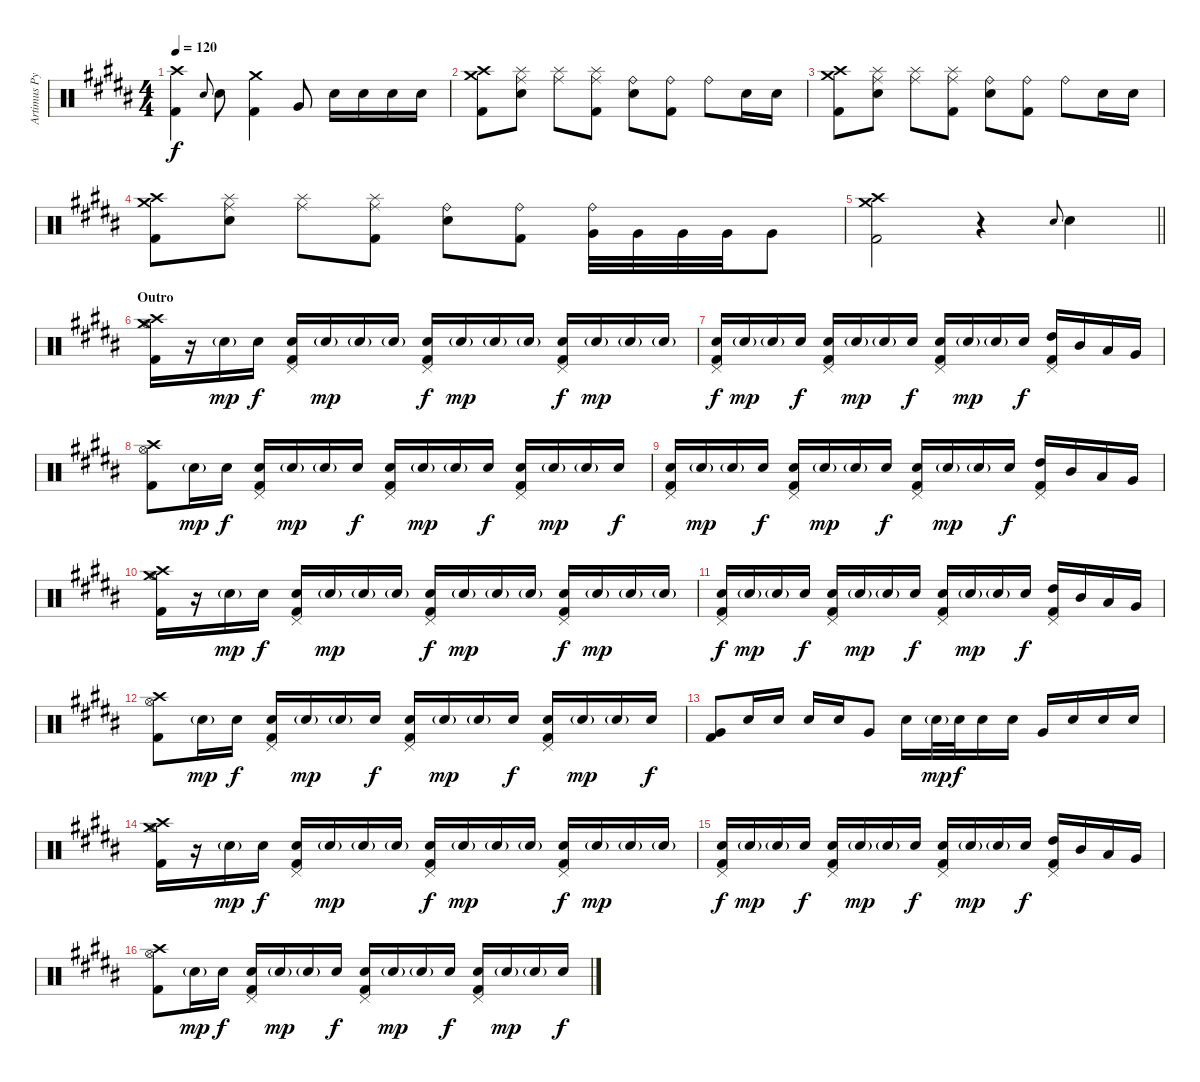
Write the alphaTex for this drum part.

\track ("Artimus Pyle - Drums" "Artimus Py") {instrument percussion}
\staff {score}
\articulation defaults
\ts (4 4)
\tempo 120
\clef neutral
\ks b
("Crash high (hit)" "Kick (hit) 2").4{dy f} "Snare (hit) 2".8{gr onbeat} "Snare (hit) 2".8 ("Crash medium (hit)" "Kick (hit) 2").4 "Very Low Tom (hit)".8 "Snare (hit) 2".16 "Snare (hit) 2".16 "Snare (hit) 2".16 "Snare (hit) 2".16 |
("Crash high (hit)" "Crash medium (hit)" "Kick (hit) 2").8 ("Ride (middle)" "Splash (hit)" "Snare (hit) 2").8 ("Ride (middle)" "Splash (hit)").8 ("Ride (middle)" "Splash (hit)" "Kick (hit) 2").8 ("Ride (bell)" "Snare (hit) 2").8 ("Ride (bell)" "Kick (hit) 2").8 "Ride (bell)".8 "Snare (hit) 2".16 "Snare (hit) 2".16 |
("Crash high (hit)" "Crash medium (hit)" "Kick (hit) 2").8 ("Ride (middle)" "Splash (hit)" "Snare (hit) 2").8 ("Ride (middle)" "Splash (hit)").8 ("Ride (middle)" "Splash (hit)" "Kick (hit) 2").8 ("Ride (bell)" "Snare (hit) 2").8 ("Ride (bell)" "Kick (hit) 2").8 "Ride (bell)".8 "Snare (hit) 2".16 "Snare (hit) 2".16 |
("Crash high (hit)" "Crash medium (hit)" "Kick (hit) 2").8 ("Ride (middle)" "Splash (hit)" "Snare (hit) 2").8 ("Ride (middle)" "Splash (hit)").8 ("Ride (middle)" "Splash (hit)" "Kick (hit) 2").8 ("Ride (bell)" "Snare (hit) 2").8 ("Ride (bell)" "Kick (hit) 2").8 ("Ride (bell)" "Very Low Tom (hit)").32 "Very Low Tom (hit)".32 "Very Low Tom (hit)".32 "Very Low Tom (hit)".32 "Very Low Tom (hit)".8 |
\barLineRight lightlight
("Crash high (hit)" "Crash medium (hit)" "Kick (hit) 2").2 r.4 "Snare (hit) 2".8{gr onbeat} "Snare (hit) 2".4 |
\section ("" "Outro")
("Crash high (hit)" "Crash medium (hit)" "Hi-Hat (open)" "Kick (hit) 2").16 r.16 "Snare (hit) 2"{g}.16{dy mp} "Snare (hit) 2".16{dy f} ("Snare (hit) 2" "Pedal Hi-Hat (hit)" "Kick (hit) 2").16 "Snare (hit) 2"{g}.16{dy mp} "Snare (hit) 2"{g}.16 "Snare (hit) 2"{g}.16 ("Snare (hit) 2" "Pedal Hi-Hat (hit)" "Kick (hit) 2").16{dy f} "Snare (hit) 2"{g}.16{dy mp} "Snare (hit) 2"{g}.16 "Snare (hit) 2"{g}.16 ("Snare (hit) 2" "Pedal Hi-Hat (hit)" "Kick (hit) 2").16{dy f} "Snare (hit) 2"{g}.16{dy mp} "Snare (hit) 2"{g}.16 "Snare (hit) 2"{g}.16 |
("Snare (hit) 2" "Pedal Hi-Hat (hit)" "Kick (hit) 2").16{dy f} "Snare (hit) 2"{g}.16{dy mp} "Snare (hit) 2"{g}.16 "Snare (hit) 2".16{dy f} ("Snare (hit) 2" "Pedal Hi-Hat (hit)" "Kick (hit) 2").16 "Snare (hit) 2"{g}.16{dy mp} "Snare (hit) 2"{g}.16 "Snare (hit) 2".16{dy f} ("Snare (hit) 2" "Pedal Hi-Hat (hit)" "Kick (hit) 2").16 "Snare (hit) 2"{g}.16{dy mp} "Snare (hit) 2"{g}.16 "Snare (hit) 2".16{dy f} ("High Tom (hit)" "Pedal Hi-Hat (hit)" "Kick (hit) 2").16 "Mid Tom (hit)".16 "Low Tom (hit)".16 "Very Low Tom (hit)".16 |
("Crash high (hit)" "Hi-Hat (open)" "Kick (hit) 2").8 "Snare (hit) 2"{g}.16{dy mp} "Snare (hit) 2".16{dy f} ("Snare (hit) 2" "Pedal Hi-Hat (hit)" "Kick (hit) 2").16 "Snare (hit) 2"{g}.16{dy mp} "Snare (hit) 2"{g}.16 "Snare (hit) 2".16{dy f} ("Snare (hit) 2" "Pedal Hi-Hat (hit)" "Kick (hit) 2").16 "Snare (hit) 2"{g}.16{dy mp} "Snare (hit) 2"{g}.16 "Snare (hit) 2".16{dy f} ("Snare (hit) 2" "Pedal Hi-Hat (hit)" "Kick (hit) 2").16 "Snare (hit) 2"{g}.16{dy mp} "Snare (hit) 2"{g}.16 "Snare (hit) 2".16{dy f} |
("Snare (hit) 2" "Pedal Hi-Hat (hit)" "Kick (hit) 2").16 "Snare (hit) 2"{g}.16{dy mp} "Snare (hit) 2"{g}.16 "Snare (hit) 2".16{dy f} ("Snare (hit) 2" "Pedal Hi-Hat (hit)" "Kick (hit) 2").16 "Snare (hit) 2"{g}.16{dy mp} "Snare (hit) 2"{g}.16 "Snare (hit) 2".16{dy f} ("Snare (hit) 2" "Pedal Hi-Hat (hit)" "Kick (hit) 2").16 "Snare (hit) 2"{g}.16{dy mp} "Snare (hit) 2"{g}.16 "Snare (hit) 2".16{dy f} ("High Tom (hit)" "Pedal Hi-Hat (hit)" "Kick (hit) 2").16 "Mid Tom (hit)".16 "Low Tom (hit)".16 "Very Low Tom (hit)".16 |
("Crash high (hit)" "Crash medium (hit)" "Hi-Hat (open)" "Kick (hit) 2").16 r.16 "Snare (hit) 2"{g}.16{dy mp} "Snare (hit) 2".16{dy f} ("Snare (hit) 2" "Pedal Hi-Hat (hit)" "Kick (hit) 2").16 "Snare (hit) 2"{g}.16{dy mp} "Snare (hit) 2"{g}.16 "Snare (hit) 2"{g}.16 ("Snare (hit) 2" "Pedal Hi-Hat (hit)" "Kick (hit) 2").16{dy f} "Snare (hit) 2"{g}.16{dy mp} "Snare (hit) 2"{g}.16 "Snare (hit) 2"{g}.16 ("Snare (hit) 2" "Pedal Hi-Hat (hit)" "Kick (hit) 2").16{dy f} "Snare (hit) 2"{g}.16{dy mp} "Snare (hit) 2"{g}.16 "Snare (hit) 2"{g}.16 |
("Snare (hit) 2" "Pedal Hi-Hat (hit)" "Kick (hit) 2").16{dy f} "Snare (hit) 2"{g}.16{dy mp} "Snare (hit) 2"{g}.16 "Snare (hit) 2".16{dy f} ("Snare (hit) 2" "Pedal Hi-Hat (hit)" "Kick (hit) 2").16 "Snare (hit) 2"{g}.16{dy mp} "Snare (hit) 2"{g}.16 "Snare (hit) 2".16{dy f} ("Snare (hit) 2" "Pedal Hi-Hat (hit)" "Kick (hit) 2").16 "Snare (hit) 2"{g}.16{dy mp} "Snare (hit) 2"{g}.16 "Snare (hit) 2".16{dy f} ("High Tom (hit)" "Pedal Hi-Hat (hit)" "Kick (hit) 2").16 "Mid Tom (hit)".16 "Low Tom (hit)".16 "Very Low Tom (hit)".16 |
("Crash high (hit)" "Hi-Hat (open)" "Kick (hit) 2").8 "Snare (hit) 2"{g}.16{dy mp} "Snare (hit) 2".16{dy f} ("Snare (hit) 2" "Pedal Hi-Hat (hit)" "Kick (hit) 2").16 "Snare (hit) 2"{g}.16{dy mp} "Snare (hit) 2"{g}.16 "Snare (hit) 2".16{dy f} ("Snare (hit) 2" "Pedal Hi-Hat (hit)" "Kick (hit) 2").16 "Snare (hit) 2"{g}.16{dy mp} "Snare (hit) 2"{g}.16 "Snare (hit) 2".16{dy f} ("Snare (hit) 2" "Pedal Hi-Hat (hit)" "Kick (hit) 2").16 "Snare (hit) 2"{g}.16{dy mp} "Snare (hit) 2"{g}.16 "Snare (hit) 2".16{dy f} |
("Very Low Tom (hit)" "Kick (hit) 2").8 "Snare (hit) 2".16 "Snare (hit) 2".16 "Snare (hit) 2".16 "Snare (hit) 2".16 "Very Low Tom (hit)".8 "Snare (hit) 2".16 "Snare (hit) 2"{g}.32{dy mp} "Snare (hit) 2".32{dy f} "Snare (hit) 2".16 "Snare (hit) 2".16 "Very Low Tom (hit)".16 "Snare (hit) 2".16 "Snare (hit) 2".16 "Snare (hit) 2".16 |
("Crash high (hit)" "Crash medium (hit)" "Hi-Hat (open)" "Kick (hit) 2").16 r.16 "Snare (hit) 2"{g}.16{dy mp} "Snare (hit) 2".16{dy f} ("Snare (hit) 2" "Pedal Hi-Hat (hit)" "Kick (hit) 2").16 "Snare (hit) 2"{g}.16{dy mp} "Snare (hit) 2"{g}.16 "Snare (hit) 2"{g}.16 ("Snare (hit) 2" "Pedal Hi-Hat (hit)" "Kick (hit) 2").16{dy f} "Snare (hit) 2"{g}.16{dy mp} "Snare (hit) 2"{g}.16 "Snare (hit) 2"{g}.16 ("Snare (hit) 2" "Pedal Hi-Hat (hit)" "Kick (hit) 2").16{dy f} "Snare (hit) 2"{g}.16{dy mp} "Snare (hit) 2"{g}.16 "Snare (hit) 2"{g}.16 |
("Snare (hit) 2" "Pedal Hi-Hat (hit)" "Kick (hit) 2").16{dy f} "Snare (hit) 2"{g}.16{dy mp} "Snare (hit) 2"{g}.16 "Snare (hit) 2".16{dy f} ("Snare (hit) 2" "Pedal Hi-Hat (hit)" "Kick (hit) 2").16 "Snare (hit) 2"{g}.16{dy mp} "Snare (hit) 2"{g}.16 "Snare (hit) 2".16{dy f} ("Snare (hit) 2" "Pedal Hi-Hat (hit)" "Kick (hit) 2").16 "Snare (hit) 2"{g}.16{dy mp} "Snare (hit) 2"{g}.16 "Snare (hit) 2".16{dy f} ("High Tom (hit)" "Pedal Hi-Hat (hit)" "Kick (hit) 2").16 "Mid Tom (hit)".16 "Low Tom (hit)".16 "Very Low Tom (hit)".16 |
("Crash high (hit)" "Hi-Hat (open)" "Kick (hit) 2").8 "Snare (hit) 2"{g}.16{dy mp} "Snare (hit) 2".16{dy f} ("Snare (hit) 2" "Pedal Hi-Hat (hit)" "Kick (hit) 2").16 "Snare (hit) 2"{g}.16{dy mp} "Snare (hit) 2"{g}.16 "Snare (hit) 2".16{dy f} ("Snare (hit) 2" "Pedal Hi-Hat (hit)" "Kick (hit) 2").16 "Snare (hit) 2"{g}.16{dy mp} "Snare (hit) 2"{g}.16 "Snare (hit) 2".16{dy f} ("Snare (hit) 2" "Pedal Hi-Hat (hit)" "Kick (hit) 2").16 "Snare (hit) 2"{g}.16{dy mp} "Snare (hit) 2"{g}.16 "Snare (hit) 2".16{dy f}
